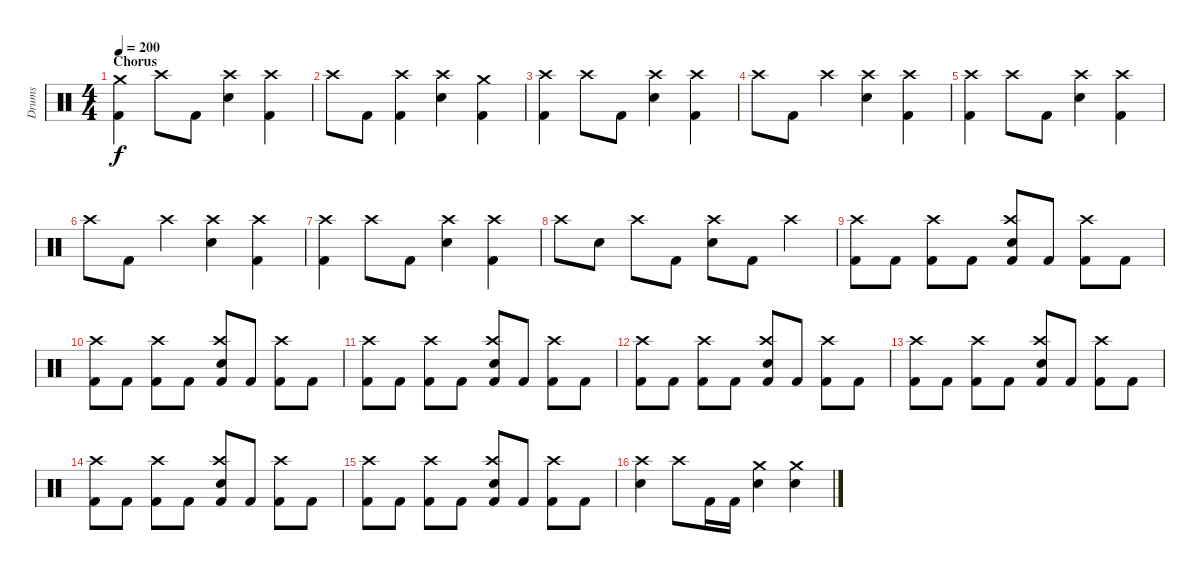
\track ("Drums" "Drums") {instrument percussion}
\staff {score}
\articulation defaults
\ts (4 4)
\section ("" "Chorus")
\tempo 200
\clef neutral
\ks c
("Crash medium (hit)" "Kick (hit) 2").4{dy f} "Crash high (hit)".8 "Kick (hit) 2".8 ("Crash high (hit)" "Electric Snare (hit)").4 ("Crash high (hit)" "Kick (hit) 2").4 |
"Crash high (hit)".8 "Kick (hit) 2".8 ("Crash high (hit)" "Kick (hit) 2").4 ("Crash high (hit)" "Electric Snare (hit)").4 ("Crash medium (hit)" "Kick (hit) 2").4 |
("Crash high (hit)" "Kick (hit) 2").4 "Crash high (hit)".8 "Kick (hit) 2".8 ("Crash high (hit)" "Electric Snare (hit)").4 ("Crash high (hit)" "Kick (hit) 2").4 |
"Crash high (hit)".8 "Kick (hit) 2".8 "Crash high (hit)".4 ("Crash high (hit)" "Electric Snare (hit)").4 ("Crash high (hit)" "Kick (hit) 2").4 |
("Crash high (hit)" "Kick (hit) 2").4 "Crash high (hit)".8 "Kick (hit) 2".8 ("Crash high (hit)" "Electric Snare (hit)").4 ("Crash high (hit)" "Kick (hit) 2").4 |
"Crash high (hit)".8 "Kick (hit) 2".8 "Crash high (hit)".4 ("Crash high (hit)" "Electric Snare (hit)").4 ("Crash high (hit)" "Kick (hit) 2").4 |
("Crash high (hit)" "Kick (hit) 2").4 "Crash high (hit)".8 "Kick (hit) 2".8 ("Crash high (hit)" "Electric Snare (hit)").4 ("Crash high (hit)" "Kick (hit) 2").4 |
"Crash high (hit)".8 "Electric Snare (hit)".8 "Crash high (hit)".8 "Kick (hit) 2".8 ("Crash high (hit)" "Electric Snare (hit)").8 "Kick (hit) 2".8 "Crash high (hit)".4 |
("Crash high (hit)" "Kick (hit) 2").8 "Kick (hit) 2".8 ("Crash high (hit)" "Kick (hit) 2").8 "Kick (hit) 2".8 ("Crash high (hit)" "Electric Snare (hit)" "Kick (hit) 2").8 "Kick (hit) 2".8 ("Crash high (hit)" "Kick (hit) 2").8 "Kick (hit) 2".8 |
("Crash high (hit)" "Kick (hit) 2").8 "Kick (hit) 2".8 ("Crash high (hit)" "Kick (hit) 2").8 "Kick (hit) 2".8 ("Crash high (hit)" "Electric Snare (hit)" "Kick (hit) 2").8 "Kick (hit) 2".8 ("Crash high (hit)" "Kick (hit) 2").8 "Kick (hit) 2".8 |
("Crash high (hit)" "Kick (hit) 2").8 "Kick (hit) 2".8 ("Crash high (hit)" "Kick (hit) 2").8 "Kick (hit) 2".8 ("Crash high (hit)" "Electric Snare (hit)" "Kick (hit) 2").8 "Kick (hit) 2".8 ("Crash high (hit)" "Kick (hit) 2").8 "Kick (hit) 2".8 |
("Crash high (hit)" "Kick (hit) 2").8 "Kick (hit) 2".8 ("Crash high (hit)" "Kick (hit) 2").8 "Kick (hit) 2".8 ("Crash high (hit)" "Electric Snare (hit)" "Kick (hit) 2").8 "Kick (hit) 2".8 ("Crash high (hit)" "Kick (hit) 2").8 "Kick (hit) 2".8 |
("Crash high (hit)" "Kick (hit) 2").8 "Kick (hit) 2".8 ("Crash high (hit)" "Kick (hit) 2").8 "Kick (hit) 2".8 ("Crash high (hit)" "Electric Snare (hit)" "Kick (hit) 2").8 "Kick (hit) 2".8 ("Crash high (hit)" "Kick (hit) 2").8 "Kick (hit) 2".8 |
("Crash high (hit)" "Kick (hit) 2").8 "Kick (hit) 2".8 ("Crash high (hit)" "Kick (hit) 2").8 "Kick (hit) 2".8 ("Crash high (hit)" "Electric Snare (hit)" "Kick (hit) 2").8 "Kick (hit) 2".8 ("Crash high (hit)" "Kick (hit) 2").8 "Kick (hit) 2".8 |
("Crash high (hit)" "Kick (hit) 2").8 "Kick (hit) 2".8 ("Crash high (hit)" "Kick (hit) 2").8 "Kick (hit) 2".8 ("Crash high (hit)" "Electric Snare (hit)" "Kick (hit) 2").8 "Kick (hit) 2".8 ("Crash high (hit)" "Kick (hit) 2").8 "Kick (hit) 2".8 |
("Crash high (hit)" "Electric Snare (hit)").4 "Crash high (hit)".8 "Kick (hit) 2".16 "Kick (hit) 2".16 ("Crash medium (hit)" "Electric Snare (hit)").4 ("Crash medium (hit)" "Electric Snare (hit)").4
